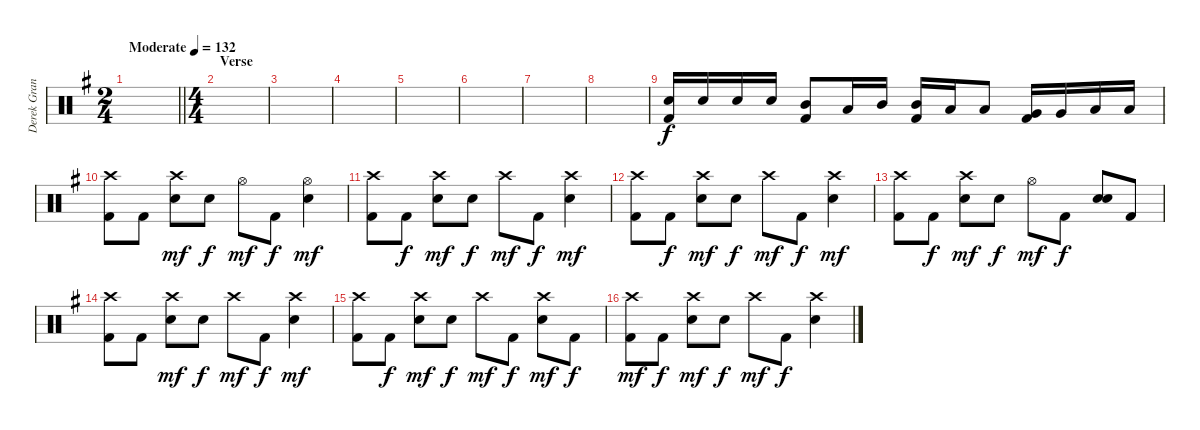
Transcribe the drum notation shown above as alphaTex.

\track ("Derek Grant - Drums" "Derek Gran") {instrument percussion}
\staff {score}
\articulation defaults
\ts (2 4)
\tempo (132 "Moderate")
\clef neutral
\barLineRight lightlight
\ks g
|
\ts (4 4)
\section ("" "Verse")
|
|
|
|
|
|
|
("Snare (hit) 2" "Kick (hit) 2").16 "Snare (hit) 2".16 "Snare (hit) 2".16 "Snare (hit) 2".16 ("Kick (hit) 2" "Mid Tom (hit)").8 "Low Tom (hit)".16 "Mid Tom (hit)".16 ("Mid Tom (hit)" "Kick (hit) 2").16 "Low Tom (hit)".16 "Low Tom (hit)".8 ("Very Low Tom (hit)" "Kick (hit) 2").16 "Very Low Tom (hit)".16 "Low Floor Tom (hit)".16 "Low Floor Tom (hit)".16 |
("Kick (hit) 2" "Crash high (hit)").8 "Kick (hit) 2".8 ("Snare (hit) 2" "Crash high (hit)").8{dy mf} "Snare (hit) 2".8{dy f} "Hi-Hat (open)".8{dy mf} "Kick (hit) 2".8{dy f} ("Snare (hit) 2" "Hi-Hat (open)").4{dy mf} |
("Kick (hit) 2" "Crash high (hit)").8 "Kick (hit) 2".8{dy f} ("Snare (hit) 2" "Crash high (hit)").8{dy mf} "Snare (hit) 2".8{dy f} "Crash high (hit)".8{dy mf} "Kick (hit) 2".8{dy f} ("Snare (hit) 2" "Crash high (hit)").4{dy mf} |
("Kick (hit) 2" "Crash high (hit)").8 "Kick (hit) 2".8{dy f} ("Snare (hit) 2" "Crash high (hit)").8{dy mf} "Snare (hit) 2".8{dy f} "Crash high (hit)".8{dy mf} "Kick (hit) 2".8{dy f} ("Snare (hit) 2" "Crash high (hit)").4{dy mf} |
("Kick (hit) 2" "Crash high (hit)").8 "Kick (hit) 2".8{dy f} ("Snare (hit) 2" "Crash high (hit)").8{dy mf} "Snare (hit) 2".8{dy f} "Hi-Hat (open)".8{dy mf} "Kick (hit) 2".8{dy f} ("Snare (hit) 2" "Snare (hit) 2").8 "Kick (hit) 2".8 |
("Kick (hit) 2" "Crash high (hit)").8 "Kick (hit) 2".8 ("Snare (hit) 2" "Crash high (hit)").8{dy mf} "Snare (hit) 2".8{dy f} "Crash high (hit)".8{dy mf} "Kick (hit) 2".8{dy f} ("Snare (hit) 2" "Crash high (hit)").4{dy mf} |
("Kick (hit) 2" "Crash high (hit)").8 "Kick (hit) 2".8{dy f} ("Snare (hit) 2" "Crash high (hit)").8{dy mf} "Snare (hit) 2".8{dy f} "Crash high (hit)".8{dy mf} "Kick (hit) 2".8{dy f} ("Snare (hit) 2" "Crash high (hit)").8{dy mf} "Kick (hit) 2".8{dy f} |
("Kick (hit) 2" "Crash high (hit)").8{dy mf} "Kick (hit) 2".8{dy f} ("Snare (hit) 2" "Crash high (hit)").8{dy mf} "Snare (hit) 2".8{dy f} "Crash high (hit)".8{dy mf} "Kick (hit) 2".8{dy f} ("Snare (hit) 2" "Crash high (hit)").4
